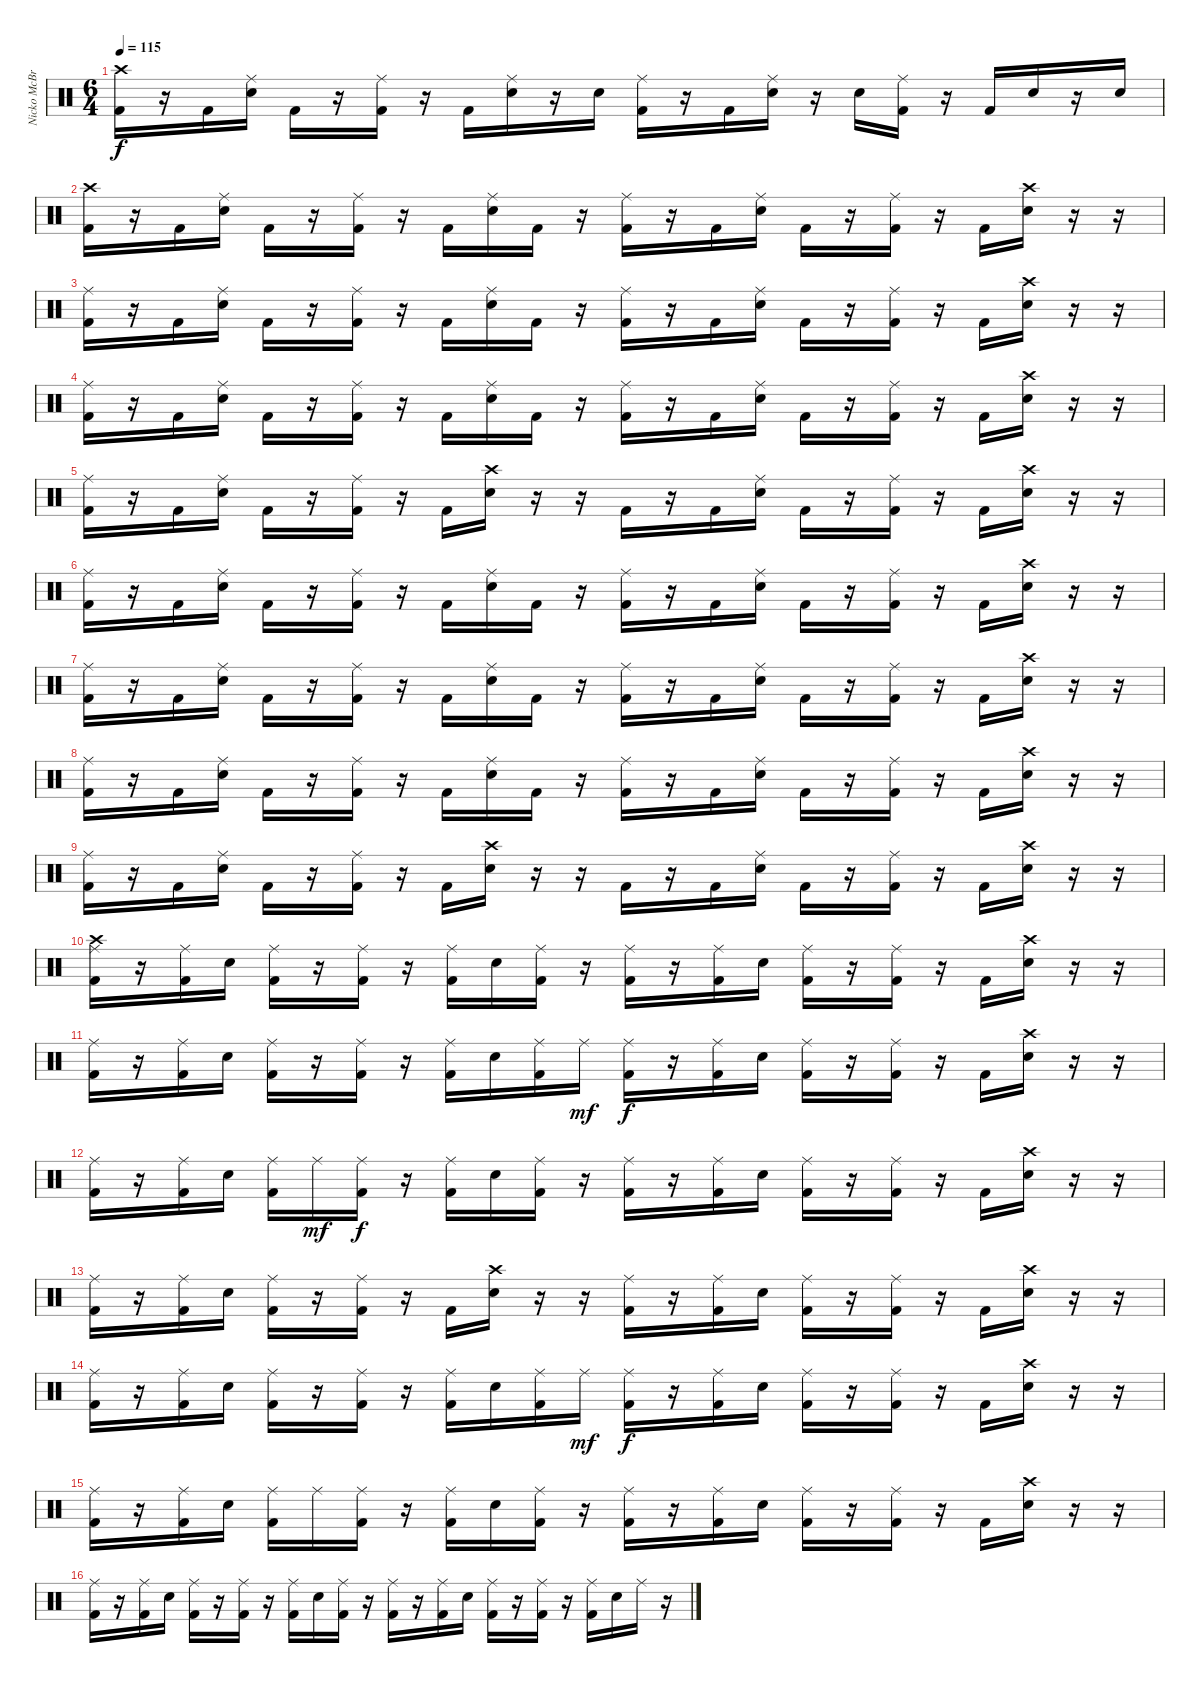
\track ("Nicko McBrain" "Nicko McBr") {instrument percussion}
\staff {score}
\articulation defaults
\ts (6 4)
\tempo 115
\clef neutral
\ks c
("Kick (hit) 2" "Crash high (hit)").16{dy f} r.16 "Kick (hit) 2".16 ("Ride (middle)" "Electric Snare (hit)").16 "Kick (hit) 2".16 r.16 ("Ride (middle)" "Kick (hit) 2").16 r.16 "Kick (hit) 2".16 ("Ride (middle)" "Electric Snare (hit)").16 r.16 "Electric Snare (hit)".16 ("Ride (middle)" "Kick (hit) 2").16 r.16 "Kick (hit) 2".16 ("Ride (middle)" "Electric Snare (hit)").16 r.16 "Electric Snare (hit)".16 ("Ride (middle)" "Kick (hit) 2").16 r.16 "Kick (hit) 2".16 "Electric Snare (hit)".16 r.16 "Electric Snare (hit)".16 |
("Kick (hit) 2" "Crash high (hit)").16 r.16 "Kick (hit) 2".16 ("Ride (middle)" "Electric Snare (hit)").16 "Kick (hit) 2".16 r.16 ("Ride (middle)" "Kick (hit) 2").16 r.16 "Kick (hit) 2".16 ("Ride (middle)" "Electric Snare (hit)").16 "Kick (hit) 2".16 r.16 ("Ride (middle)" "Kick (hit) 2").16 r.16 "Kick (hit) 2".16 ("Ride (middle)" "Electric Snare (hit)").16 "Kick (hit) 2".16 r.16 ("Ride (middle)" "Kick (hit) 2").16 r.16 "Kick (hit) 2".16 ("Crash high (hit)" "Electric Snare (hit)").16 r.16 r.16 |
("Kick (hit) 2" "Ride (middle)").16 r.16 "Kick (hit) 2".16 ("Ride (middle)" "Electric Snare (hit)").16 "Kick (hit) 2".16 r.16 ("Ride (middle)" "Kick (hit) 2").16 r.16 "Kick (hit) 2".16 ("Ride (middle)" "Electric Snare (hit)").16 "Kick (hit) 2".16 r.16 ("Ride (middle)" "Kick (hit) 2").16 r.16 "Kick (hit) 2".16 ("Ride (middle)" "Electric Snare (hit)").16 "Kick (hit) 2".16 r.16 ("Ride (middle)" "Kick (hit) 2").16 r.16 "Kick (hit) 2".16 ("Crash high (hit)" "Electric Snare (hit)").16 r.16 r.16 |
("Kick (hit) 2" "Ride (middle)").16 r.16 "Kick (hit) 2".16 ("Ride (middle)" "Electric Snare (hit)").16 "Kick (hit) 2".16 r.16 ("Ride (middle)" "Kick (hit) 2").16 r.16 "Kick (hit) 2".16 ("Ride (middle)" "Electric Snare (hit)").16 "Kick (hit) 2".16 r.16 ("Ride (middle)" "Kick (hit) 2").16 r.16 "Kick (hit) 2".16 ("Ride (middle)" "Electric Snare (hit)").16 "Kick (hit) 2".16 r.16 ("Ride (middle)" "Kick (hit) 2").16 r.16 "Kick (hit) 2".16 ("Crash high (hit)" "Electric Snare (hit)").16 r.16 r.16 |
("Kick (hit) 2" "Ride (middle)").16 r.16 "Kick (hit) 2".16 ("Ride (middle)" "Electric Snare (hit)").16 "Kick (hit) 2".16 r.16 ("Ride (middle)" "Kick (hit) 2").16 r.16 "Kick (hit) 2".16 ("Crash high (hit)" "Electric Snare (hit)").16 r.16 r.16 "Kick (hit) 2".16 r.16 "Kick (hit) 2".16 ("Ride (middle)" "Electric Snare (hit)").16 "Kick (hit) 2".16 r.16 ("Ride (middle)" "Kick (hit) 2").16 r.16 "Kick (hit) 2".16 ("Crash high (hit)" "Electric Snare (hit)").16 r.16 r.16 |
("Kick (hit) 2" "Ride (middle)").16 r.16 "Kick (hit) 2".16 ("Ride (middle)" "Electric Snare (hit)").16 "Kick (hit) 2".16 r.16 ("Ride (middle)" "Kick (hit) 2").16 r.16 "Kick (hit) 2".16 ("Ride (middle)" "Electric Snare (hit)").16 "Kick (hit) 2".16 r.16 ("Ride (middle)" "Kick (hit) 2").16 r.16 "Kick (hit) 2".16 ("Ride (middle)" "Electric Snare (hit)").16 "Kick (hit) 2".16 r.16 ("Ride (middle)" "Kick (hit) 2").16 r.16 "Kick (hit) 2".16 ("Crash high (hit)" "Electric Snare (hit)").16 r.16 r.16 |
("Kick (hit) 2" "Ride (middle)").16 r.16 "Kick (hit) 2".16 ("Ride (middle)" "Electric Snare (hit)").16 "Kick (hit) 2".16 r.16 ("Ride (middle)" "Kick (hit) 2").16 r.16 "Kick (hit) 2".16 ("Ride (middle)" "Electric Snare (hit)").16 "Kick (hit) 2".16 r.16 ("Ride (middle)" "Kick (hit) 2").16 r.16 "Kick (hit) 2".16 ("Ride (middle)" "Electric Snare (hit)").16 "Kick (hit) 2".16 r.16 ("Ride (middle)" "Kick (hit) 2").16 r.16 "Kick (hit) 2".16 ("Crash high (hit)" "Electric Snare (hit)").16 r.16 r.16 |
("Kick (hit) 2" "Ride (middle)").16 r.16 "Kick (hit) 2".16 ("Ride (middle)" "Electric Snare (hit)").16 "Kick (hit) 2".16 r.16 ("Ride (middle)" "Kick (hit) 2").16 r.16 "Kick (hit) 2".16 ("Ride (middle)" "Electric Snare (hit)").16 "Kick (hit) 2".16 r.16 ("Ride (middle)" "Kick (hit) 2").16 r.16 "Kick (hit) 2".16 ("Ride (middle)" "Electric Snare (hit)").16 "Kick (hit) 2".16 r.16 ("Ride (middle)" "Kick (hit) 2").16 r.16 "Kick (hit) 2".16 ("Crash high (hit)" "Electric Snare (hit)").16 r.16 r.16 |
("Kick (hit) 2" "Ride (middle)").16 r.16 "Kick (hit) 2".16 ("Ride (middle)" "Electric Snare (hit)").16 "Kick (hit) 2".16 r.16 ("Ride (middle)" "Kick (hit) 2").16 r.16 "Kick (hit) 2".16 ("Crash high (hit)" "Electric Snare (hit)").16 r.16 r.16 "Kick (hit) 2".16 r.16 "Kick (hit) 2".16 ("Ride (middle)" "Electric Snare (hit)").16 "Kick (hit) 2".16 r.16 ("Ride (middle)" "Kick (hit) 2").16 r.16 "Kick (hit) 2".16 ("Crash high (hit)" "Electric Snare (hit)").16 r.16 r.16 |
("Kick (hit) 2" "Crash high (hit)" "Ride (middle)").16 r.16 ("Ride (middle)" "Kick (hit) 2").16 "Electric Snare (hit)".16 ("Ride (middle)" "Kick (hit) 2").16 r.16 ("Ride (middle)" "Kick (hit) 2").16 r.16 ("Ride (middle)" "Kick (hit) 2").16 "Electric Snare (hit)".16 ("Ride (middle)" "Kick (hit) 2").16 r.16 ("Ride (middle)" "Kick (hit) 2").16 r.16 ("Ride (middle)" "Kick (hit) 2").16 "Electric Snare (hit)".16 ("Ride (middle)" "Kick (hit) 2").16 r.16 ("Ride (middle)" "Kick (hit) 2").16 r.16 "Kick (hit) 2".16 ("Crash high (hit)" "Electric Snare (hit)").16 r.16 r.16 |
("Kick (hit) 2" "Ride (middle)").16 r.16 ("Ride (middle)" "Kick (hit) 2").16 "Electric Snare (hit)".16 ("Ride (middle)" "Kick (hit) 2").16 r.16 ("Ride (middle)" "Kick (hit) 2").16 r.16 ("Ride (middle)" "Kick (hit) 2").16 "Electric Snare (hit)".16 ("Ride (middle)" "Kick (hit) 2").16 "Ride (middle)".16{dy mf} ("Ride (middle)" "Kick (hit) 2").16{dy f} r.16 ("Ride (middle)" "Kick (hit) 2").16 "Electric Snare (hit)".16 ("Ride (middle)" "Kick (hit) 2").16 r.16 ("Ride (middle)" "Kick (hit) 2").16 r.16 "Kick (hit) 2".16 ("Crash high (hit)" "Electric Snare (hit)").16 r.16 r.16 |
("Kick (hit) 2" "Ride (middle)").16 r.16 ("Ride (middle)" "Kick (hit) 2").16 "Electric Snare (hit)".16 ("Ride (middle)" "Kick (hit) 2").16 "Ride (middle)".16{dy mf} ("Ride (middle)" "Kick (hit) 2").16{dy f} r.16 ("Ride (middle)" "Kick (hit) 2").16 "Electric Snare (hit)".16 ("Ride (middle)" "Kick (hit) 2").16 r.16 ("Ride (middle)" "Kick (hit) 2").16 r.16 ("Ride (middle)" "Kick (hit) 2").16 "Electric Snare (hit)".16 ("Ride (middle)" "Kick (hit) 2").16 r.16 ("Ride (middle)" "Kick (hit) 2").16 r.16 "Kick (hit) 2".16 ("Crash high (hit)" "Electric Snare (hit)").16 r.16 r.16 |
("Kick (hit) 2" "Ride (middle)").16 r.16 ("Ride (middle)" "Kick (hit) 2").16 "Electric Snare (hit)".16 ("Ride (middle)" "Kick (hit) 2").16 r.16 ("Ride (middle)" "Kick (hit) 2").16 r.16 "Kick (hit) 2".16 ("Crash high (hit)" "Electric Snare (hit)").16 r.16 r.16 ("Ride (middle)" "Kick (hit) 2").16 r.16 ("Ride (middle)" "Kick (hit) 2").16 "Electric Snare (hit)".16 ("Ride (middle)" "Kick (hit) 2").16 r.16 ("Ride (middle)" "Kick (hit) 2").16 r.16 "Kick (hit) 2".16 ("Crash high (hit)" "Electric Snare (hit)").16 r.16 r.16 |
("Kick (hit) 2" "Ride (middle)").16 r.16 ("Ride (middle)" "Kick (hit) 2").16 "Electric Snare (hit)".16 ("Ride (middle)" "Kick (hit) 2").16 r.16 ("Ride (middle)" "Kick (hit) 2").16 r.16 ("Ride (middle)" "Kick (hit) 2").16 "Electric Snare (hit)".16 ("Ride (middle)" "Kick (hit) 2").16 "Ride (middle)".16{dy mf} ("Ride (middle)" "Kick (hit) 2").16{dy f} r.16 ("Ride (middle)" "Kick (hit) 2").16 "Electric Snare (hit)".16 ("Ride (middle)" "Kick (hit) 2").16 r.16 ("Ride (middle)" "Kick (hit) 2").16 r.16 "Kick (hit) 2".16 ("Crash high (hit)" "Electric Snare (hit)").16 r.16 r.16 |
("Kick (hit) 2" "Ride (middle)").16 r.16 ("Ride (middle)" "Kick (hit) 2").16 "Electric Snare (hit)".16 ("Ride (middle)" "Kick (hit) 2").16 "Ride (middle)".16 ("Ride (middle)" "Kick (hit) 2").16 r.16 ("Ride (middle)" "Kick (hit) 2").16 "Electric Snare (hit)".16 ("Ride (middle)" "Kick (hit) 2").16 r.16 ("Ride (middle)" "Kick (hit) 2").16 r.16 ("Ride (middle)" "Kick (hit) 2").16 "Electric Snare (hit)".16 ("Ride (middle)" "Kick (hit) 2").16 r.16 ("Ride (middle)" "Kick (hit) 2").16 r.16 "Kick (hit) 2".16 ("Crash high (hit)" "Electric Snare (hit)").16 r.16 r.16 |
("Kick (hit) 2" "Ride (middle)").16 r.16 ("Ride (middle)" "Kick (hit) 2").16 "Electric Snare (hit)".16 ("Ride (middle)" "Kick (hit) 2").16 r.16 ("Ride (middle)" "Kick (hit) 2").16 r.16 ("Ride (middle)" "Kick (hit) 2").16 "Electric Snare (hit)".16 ("Ride (middle)" "Kick (hit) 2").16 r.16 ("Ride (middle)" "Kick (hit) 2").16 r.16 ("Ride (middle)" "Kick (hit) 2").16 "Electric Snare (hit)".16 ("Ride (middle)" "Kick (hit) 2").16 r.16 ("Ride (middle)" "Kick (hit) 2").16 r.16 ("Kick (hit) 2" "Ride (middle)").16 "Electric Snare (hit)".16 "Ride (middle)".16 r.16
